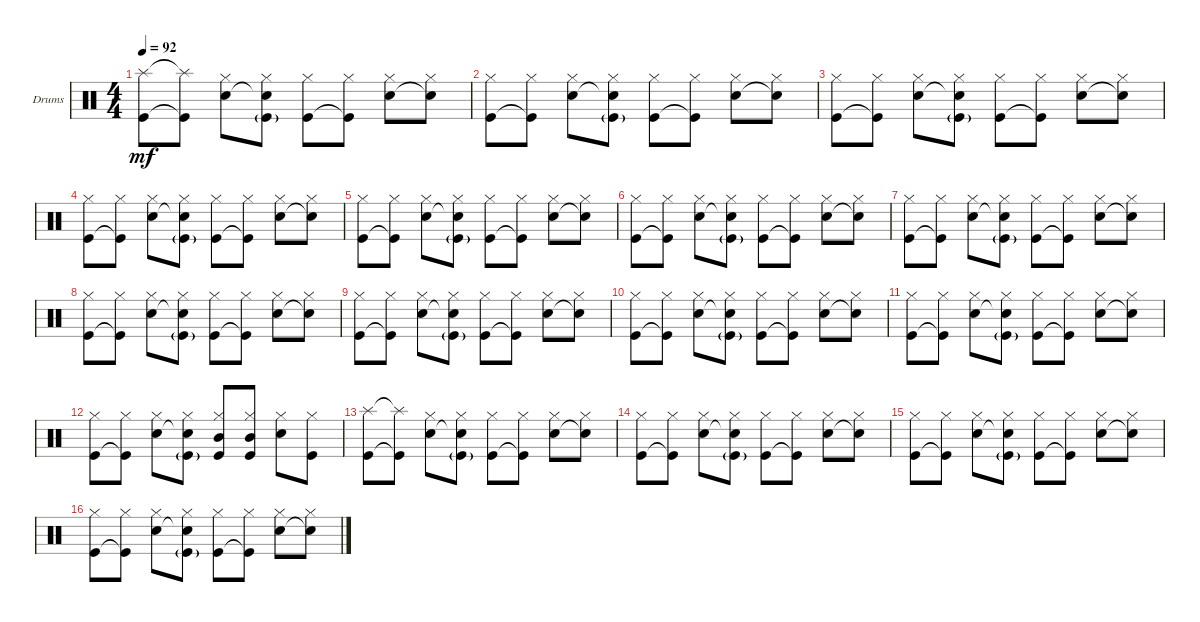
\bracketExtendMode groupsimilarinstruments
\firstSystemTrackNameOrientation horizontal
\otherSystemsTrackNameOrientation horizontal
\track ("Drumkit" "Drums") {instrument percussion}
\staff {score}
\articulation defaults
\ts (4 4)
\tempo 92
\clef neutral
\ks c
("Kick (hit)" "Splash (hit)").8{dy mf} ("Kick (hit)"{t} "Splash (hit)"{t}).8 ("Hi-Hat (closed)" "Snare (hit) 2").8 ("Hi-Hat (closed)" "Snare (hit) 2"{t} "Kick (hit)"{g}).8 ("Hi-Hat (closed)" "Kick (hit)").8 ("Hi-Hat (closed)" "Kick (hit)"{t}).8 ("Hi-Hat (closed)" "Snare (hit) 2").8 ("Hi-Hat (closed)" "Snare (hit) 2"{t}).8 |
("Hi-Hat (closed)" "Kick (hit)").8 ("Hi-Hat (closed)" "Kick (hit)"{t}).8 ("Hi-Hat (closed)" "Snare (hit) 2").8 ("Hi-Hat (closed)" "Snare (hit) 2"{t} "Kick (hit)"{g}).8 ("Hi-Hat (closed)" "Kick (hit)").8 ("Hi-Hat (closed)" "Kick (hit)"{t}).8 ("Hi-Hat (closed)" "Snare (hit) 2").8 ("Hi-Hat (closed)" "Snare (hit) 2"{t}).8 |
("Hi-Hat (closed)" "Kick (hit)").8 ("Hi-Hat (closed)" "Kick (hit)"{t}).8 ("Hi-Hat (closed)" "Snare (hit) 2").8 ("Hi-Hat (closed)" "Snare (hit) 2"{t} "Kick (hit)"{g}).8 ("Hi-Hat (closed)" "Kick (hit)").8 ("Hi-Hat (closed)" "Kick (hit)"{t}).8 ("Hi-Hat (closed)" "Snare (hit) 2").8 ("Hi-Hat (closed)" "Snare (hit) 2"{t}).8 |
("Hi-Hat (closed)" "Kick (hit)").8 ("Hi-Hat (closed)" "Kick (hit)"{t}).8 ("Hi-Hat (closed)" "Snare (hit) 2").8 ("Hi-Hat (closed)" "Snare (hit) 2"{t} "Kick (hit)"{g}).8 ("Hi-Hat (closed)" "Kick (hit)").8 ("Hi-Hat (closed)" "Kick (hit)"{t}).8 ("Hi-Hat (closed)" "Snare (hit) 2").8 ("Hi-Hat (closed)" "Snare (hit) 2"{t}).8 |
("Hi-Hat (closed)" "Kick (hit)").8 ("Hi-Hat (closed)" "Kick (hit)"{t}).8 ("Hi-Hat (closed)" "Snare (hit) 2").8 ("Hi-Hat (closed)" "Snare (hit) 2"{t} "Kick (hit)"{g}).8 ("Hi-Hat (closed)" "Kick (hit)").8 ("Hi-Hat (closed)" "Kick (hit)"{t}).8 ("Hi-Hat (closed)" "Snare (hit) 2").8 ("Hi-Hat (closed)" "Snare (hit) 2"{t}).8 |
("Hi-Hat (closed)" "Kick (hit)").8 ("Hi-Hat (closed)" "Kick (hit)"{t}).8 ("Hi-Hat (closed)" "Snare (hit) 2").8 ("Hi-Hat (closed)" "Snare (hit) 2"{t} "Kick (hit)"{g}).8 ("Hi-Hat (closed)" "Kick (hit)").8 ("Hi-Hat (closed)" "Kick (hit)"{t}).8 ("Hi-Hat (closed)" "Snare (hit) 2").8 ("Hi-Hat (closed)" "Snare (hit) 2"{t}).8 |
("Hi-Hat (closed)" "Kick (hit)").8 ("Hi-Hat (closed)" "Kick (hit)"{t}).8 ("Hi-Hat (closed)" "Snare (hit) 2").8 ("Hi-Hat (closed)" "Snare (hit) 2"{t} "Kick (hit)"{g}).8 ("Hi-Hat (closed)" "Kick (hit)").8 ("Hi-Hat (closed)" "Kick (hit)"{t}).8 ("Hi-Hat (closed)" "Snare (hit) 2").8 ("Hi-Hat (closed)" "Snare (hit) 2"{t}).8 |
("Hi-Hat (closed)" "Kick (hit)").8 ("Hi-Hat (closed)" "Kick (hit)"{t}).8 ("Hi-Hat (closed)" "Snare (hit) 2").8 ("Hi-Hat (closed)" "Snare (hit) 2"{t} "Kick (hit)"{g}).8 ("Hi-Hat (closed)" "Kick (hit)").8 ("Hi-Hat (closed)" "Kick (hit)"{t}).8 ("Hi-Hat (closed)" "Snare (hit) 2").8 ("Hi-Hat (closed)" "Snare (hit) 2"{t}).8 |
("Hi-Hat (closed)" "Kick (hit)").8 ("Hi-Hat (closed)" "Kick (hit)"{t}).8 ("Hi-Hat (closed)" "Snare (hit) 2").8 ("Hi-Hat (closed)" "Snare (hit) 2"{t} "Kick (hit)"{g}).8 ("Hi-Hat (closed)" "Kick (hit)").8 ("Hi-Hat (closed)" "Kick (hit)"{t}).8 ("Hi-Hat (closed)" "Snare (hit) 2").8 ("Hi-Hat (closed)" "Snare (hit) 2"{t}).8 |
("Hi-Hat (closed)" "Kick (hit)").8 ("Hi-Hat (closed)" "Kick (hit)"{t}).8 ("Hi-Hat (closed)" "Snare (hit) 2").8 ("Hi-Hat (closed)" "Snare (hit) 2"{t} "Kick (hit)"{g}).8 ("Hi-Hat (closed)" "Kick (hit)").8 ("Hi-Hat (closed)" "Kick (hit)"{t}).8 ("Hi-Hat (closed)" "Snare (hit) 2").8 ("Hi-Hat (closed)" "Snare (hit) 2"{t}).8 |
("Hi-Hat (closed)" "Kick (hit)").8 ("Hi-Hat (closed)" "Kick (hit)"{t}).8 ("Hi-Hat (closed)" "Snare (hit) 2").8 ("Hi-Hat (closed)" "Snare (hit) 2"{t} "Kick (hit)"{g}).8 ("Hi-Hat (closed)" "Kick (hit)").8 ("Hi-Hat (closed)" "Kick (hit)"{t}).8 ("Hi-Hat (closed)" "Snare (hit) 2").8 ("Hi-Hat (closed)" "Snare (hit) 2"{t}).8 |
("Hi-Hat (closed)" "Kick (hit)").8 ("Hi-Hat (closed)" "Kick (hit)"{t}).8 ("Hi-Hat (closed)" "Snare (hit) 2").8 ("Hi-Hat (closed)" "Snare (hit) 2"{t} "Kick (hit)"{g}).8 ("Hi-Hat (closed)" "Kick (hit)" "Mid Tom (hit)").8 ("Hi-Hat (closed)" "Kick (hit)" "Mid Tom (hit)").8 ("Hi-Hat (closed)" "Snare (hit) 2").8 ("Hi-Hat (closed)" "Kick (hit)").8 |
("Kick (hit)" "Splash (hit)").8 ("Kick (hit)"{t} "Splash (hit)"{t}).8 ("Hi-Hat (closed)" "Snare (hit) 2").8 ("Hi-Hat (closed)" "Snare (hit) 2"{t} "Kick (hit)"{g}).8 ("Hi-Hat (closed)" "Kick (hit)").8 ("Hi-Hat (closed)" "Kick (hit)"{t}).8 ("Hi-Hat (closed)" "Snare (hit) 2").8 ("Hi-Hat (closed)" "Snare (hit) 2"{t}).8 |
("Hi-Hat (closed)" "Kick (hit)").8 ("Hi-Hat (closed)" "Kick (hit)"{t}).8 ("Hi-Hat (closed)" "Snare (hit) 2").8 ("Hi-Hat (closed)" "Snare (hit) 2"{t} "Kick (hit)"{g}).8 ("Hi-Hat (closed)" "Kick (hit)").8 ("Hi-Hat (closed)" "Kick (hit)"{t}).8 ("Hi-Hat (closed)" "Snare (hit) 2").8 ("Hi-Hat (closed)" "Snare (hit) 2"{t}).8 |
("Hi-Hat (closed)" "Kick (hit)").8 ("Hi-Hat (closed)" "Kick (hit)"{t}).8 ("Hi-Hat (closed)" "Snare (hit) 2").8 ("Hi-Hat (closed)" "Snare (hit) 2"{t} "Kick (hit)"{g}).8 ("Hi-Hat (closed)" "Kick (hit)").8 ("Hi-Hat (closed)" "Kick (hit)"{t}).8 ("Hi-Hat (closed)" "Snare (hit) 2").8 ("Hi-Hat (closed)" "Snare (hit) 2"{t}).8 |
("Hi-Hat (closed)" "Kick (hit)").8 ("Hi-Hat (closed)" "Kick (hit)"{t}).8 ("Hi-Hat (closed)" "Snare (hit) 2").8 ("Hi-Hat (closed)" "Snare (hit) 2"{t} "Kick (hit)"{g}).8 ("Hi-Hat (closed)" "Kick (hit)").8 ("Hi-Hat (closed)" "Kick (hit)"{t}).8 ("Hi-Hat (closed)" "Snare (hit) 2").8 ("Hi-Hat (closed)" "Snare (hit) 2"{t}).8
